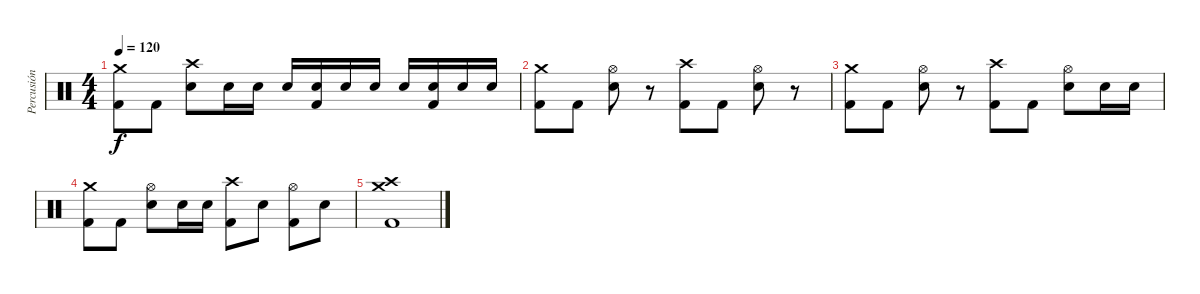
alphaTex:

\track ("Percusión" "Percusión") {instrument percussion}
\staff {score}
\articulation defaults
\ts (4 4)
\tempo 120
\clef neutral
\ks c
("Crash medium (hit)" "Kick (hit) 2").8{dy f} "Kick (hit) 2".8 ("Crash high (hit)" "Snare (hit) 2").8 "Snare (hit) 2".16 "Snare (hit) 2".16 "Snare (hit) 2".16 ("Snare (hit) 2" "Kick (hit) 2").16 "Snare (hit) 2".16 "Snare (hit) 2".16 "Snare (hit) 2".16 ("Snare (hit) 2" "Kick (hit) 2").16 "Snare (hit) 2".16 "Snare (hit) 2".16 |
("Crash medium (hit)" "Kick (hit) 2").8 "Kick (hit) 2".8 ("Hi-Hat (open)" "Snare (hit) 2").8 r.8 ("Crash high (hit)" "Kick (hit) 2").8 "Kick (hit) 2".8 ("Hi-Hat (open)" "Snare (hit) 2").8 r.8 |
("Crash medium (hit)" "Kick (hit) 2").8 "Kick (hit) 2".8 ("Hi-Hat (open)" "Snare (hit) 2").8 r.8 ("Crash high (hit)" "Kick (hit) 2").8 "Kick (hit) 2".8 ("Hi-Hat (open)" "Snare (hit) 2").8 "Snare (hit) 2".16 "Snare (hit) 2".16 |
("Crash medium (hit)" "Kick (hit) 2").8 "Kick (hit) 2".8 ("Hi-Hat (open)" "Snare (hit) 2").8 "Snare (hit) 2".16 "Snare (hit) 2".16 ("Crash high (hit)" "Kick (hit) 2").8 "Snare (hit) 2".8 ("Hi-Hat (open)" "Kick (hit) 2").8 "Snare (hit) 2".8 |
("Crash medium (hit)" "Crash high (hit)" "Kick (hit) 2").1
